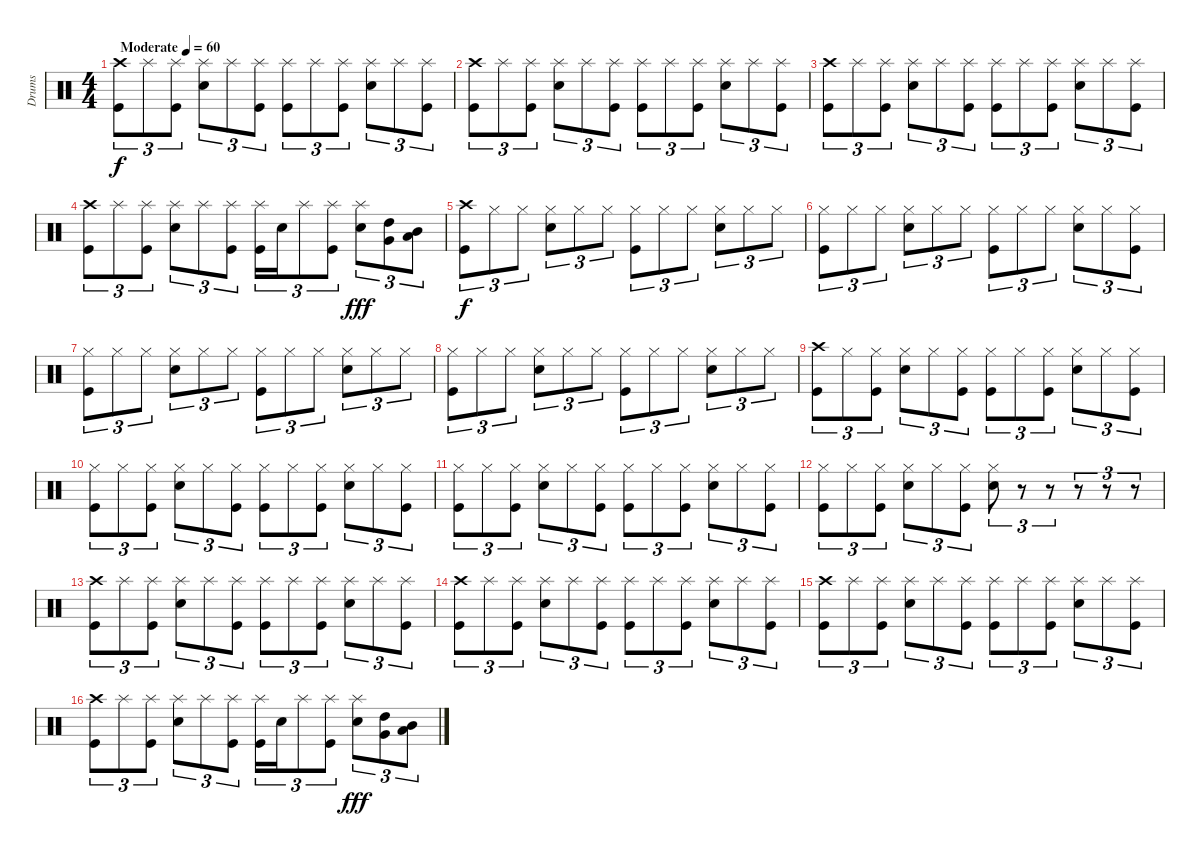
\track ("Drums" "Drums") {instrument percussion}
\staff {score}
\articulation defaults
\ts (4 4)
\tempo (60 "Moderate")
\clef neutral
\ks c
("Crash high (hit)" "Kick (hit)").8{tu (3 2) dy f} "Splash (hit)".8{tu (3 2)} ("Splash (hit)" "Kick (hit)").8{tu (3 2)} ("Splash (hit)" "Electric Snare (hit)").8{tu (3 2)} "Splash (hit)".8{tu (3 2)} ("Splash (hit)" "Kick (hit)").8{tu (3 2)} ("Splash (hit)" "Kick (hit)").8{tu (3 2)} "Splash (hit)".8{tu (3 2)} ("Splash (hit)" "Kick (hit)").8{tu (3 2)} ("Splash (hit)" "Electric Snare (hit)").8{tu (3 2)} "Splash (hit)".8{tu (3 2)} ("Splash (hit)" "Kick (hit)").8{tu (3 2)} |
("Crash high (hit)" "Kick (hit)").8{tu (3 2)} "Splash (hit)".8{tu (3 2)} ("Splash (hit)" "Kick (hit)").8{tu (3 2)} ("Splash (hit)" "Electric Snare (hit)").8{tu (3 2)} "Splash (hit)".8{tu (3 2)} ("Splash (hit)" "Kick (hit)").8{tu (3 2)} ("Splash (hit)" "Kick (hit)").8{tu (3 2)} "Splash (hit)".8{tu (3 2)} ("Splash (hit)" "Kick (hit)").8{tu (3 2)} ("Splash (hit)" "Electric Snare (hit)").8{tu (3 2)} "Splash (hit)".8{tu (3 2)} ("Splash (hit)" "Kick (hit)").8{tu (3 2)} |
("Crash high (hit)" "Kick (hit)").8{tu (3 2)} "Splash (hit)".8{tu (3 2)} ("Splash (hit)" "Kick (hit)").8{tu (3 2)} ("Splash (hit)" "Electric Snare (hit)").8{tu (3 2)} "Splash (hit)".8{tu (3 2)} ("Splash (hit)" "Kick (hit)").8{tu (3 2)} ("Splash (hit)" "Kick (hit)").8{tu (3 2)} "Splash (hit)".8{tu (3 2)} ("Splash (hit)" "Kick (hit)").8{tu (3 2)} ("Splash (hit)" "Electric Snare (hit)").8{tu (3 2)} "Splash (hit)".8{tu (3 2)} ("Splash (hit)" "Kick (hit)").8{tu (3 2)} |
("Crash high (hit)" "Kick (hit)").8{tu (3 2)} "Splash (hit)".8{tu (3 2)} ("Splash (hit)" "Kick (hit)").8{tu (3 2)} ("Splash (hit)" "Electric Snare (hit)").8{tu (3 2)} "Splash (hit)".8{tu (3 2)} ("Splash (hit)" "Kick (hit)").8{tu (3 2)} ("Splash (hit)" "Kick (hit)").16{tu (3 2)} "Electric Snare (hit)".16{tu (3 2)} "Splash (hit)".8{tu (3 2)} ("Splash (hit)" "Kick (hit)").8{tu (3 2)} ("Splash (hit)" "Electric Snare (hit)").8{tu (3 2) dy fff} ("High Tom (hit)" "Very Low Tom (hit)").8{tu (3 2)} ("Mid Tom (hit)" "Low Floor Tom (hit)").8{tu (3 2)} |
("Crash high (hit)" "Kick (hit)").8{tu (3 2) dy f} "Hi-Hat (closed)".8{tu (3 2)} "Hi-Hat (closed)".8{tu (3 2)} ("Hi-Hat (closed)" "Electric Snare (hit)").8{tu (3 2)} "Hi-Hat (closed)".8{tu (3 2)} "Hi-Hat (closed)".8{tu (3 2)} ("Hi-Hat (closed)" "Kick (hit)").8{tu (3 2)} "Hi-Hat (closed)".8{tu (3 2)} "Hi-Hat (closed)".8{tu (3 2)} ("Hi-Hat (closed)" "Electric Snare (hit)").8{tu (3 2)} "Hi-Hat (closed)".8{tu (3 2)} "Hi-Hat (closed)".8{tu (3 2)} |
("Hi-Hat (closed)" "Kick (hit)").8{tu (3 2)} "Hi-Hat (closed)".8{tu (3 2)} "Hi-Hat (closed)".8{tu (3 2)} ("Hi-Hat (closed)" "Electric Snare (hit)").8{tu (3 2)} "Hi-Hat (closed)".8{tu (3 2)} "Hi-Hat (closed)".8{tu (3 2)} ("Hi-Hat (closed)" "Kick (hit)").8{tu (3 2)} "Hi-Hat (closed)".8{tu (3 2)} "Hi-Hat (closed)".8{tu (3 2)} ("Hi-Hat (closed)" "Electric Snare (hit)").8{tu (3 2)} "Hi-Hat (closed)".8{tu (3 2)} ("Hi-Hat (closed)" "Kick (hit)").8{tu (3 2)} |
("Hi-Hat (closed)" "Kick (hit)").8{tu (3 2)} "Hi-Hat (closed)".8{tu (3 2)} "Hi-Hat (closed)".8{tu (3 2)} ("Hi-Hat (closed)" "Electric Snare (hit)").8{tu (3 2)} "Hi-Hat (closed)".8{tu (3 2)} "Hi-Hat (closed)".8{tu (3 2)} ("Hi-Hat (closed)" "Kick (hit)").8{tu (3 2)} "Hi-Hat (closed)".8{tu (3 2)} "Hi-Hat (closed)".8{tu (3 2)} ("Hi-Hat (closed)" "Electric Snare (hit)").8{tu (3 2)} "Hi-Hat (closed)".8{tu (3 2)} "Hi-Hat (closed)".8{tu (3 2)} |
("Hi-Hat (closed)" "Kick (hit)").8{tu (3 2)} "Hi-Hat (closed)".8{tu (3 2)} "Hi-Hat (closed)".8{tu (3 2)} ("Hi-Hat (closed)" "Electric Snare (hit)").8{tu (3 2)} "Hi-Hat (closed)".8{tu (3 2)} "Hi-Hat (closed)".8{tu (3 2)} ("Hi-Hat (closed)" "Kick (hit)").8{tu (3 2)} "Hi-Hat (closed)".8{tu (3 2)} "Hi-Hat (closed)".8{tu (3 2)} ("Hi-Hat (closed)" "Electric Snare (hit)").8{tu (3 2)} "Hi-Hat (closed)".8{tu (3 2)} "Hi-Hat (closed)".8{tu (3 2)} |
("Crash high (hit)" "Kick (hit)").8{tu (3 2)} "Hi-Hat (closed)".8{tu (3 2)} ("Hi-Hat (closed)" "Kick (hit)").8{tu (3 2)} ("Hi-Hat (closed)" "Electric Snare (hit)").8{tu (3 2)} "Hi-Hat (closed)".8{tu (3 2)} ("Hi-Hat (closed)" "Kick (hit)").8{tu (3 2)} ("Hi-Hat (closed)" "Kick (hit)").8{tu (3 2)} "Hi-Hat (closed)".8{tu (3 2)} ("Hi-Hat (closed)" "Kick (hit)").8{tu (3 2)} ("Hi-Hat (closed)" "Electric Snare (hit)").8{tu (3 2)} "Hi-Hat (closed)".8{tu (3 2)} ("Hi-Hat (closed)" "Kick (hit)").8{tu (3 2)} |
("Hi-Hat (closed)" "Kick (hit)").8{tu (3 2)} "Hi-Hat (closed)".8{tu (3 2)} ("Hi-Hat (closed)" "Kick (hit)").8{tu (3 2)} ("Hi-Hat (closed)" "Electric Snare (hit)").8{tu (3 2)} "Hi-Hat (closed)".8{tu (3 2)} ("Hi-Hat (closed)" "Kick (hit)").8{tu (3 2)} ("Hi-Hat (closed)" "Kick (hit)").8{tu (3 2)} "Hi-Hat (closed)".8{tu (3 2)} ("Hi-Hat (closed)" "Kick (hit)").8{tu (3 2)} ("Hi-Hat (closed)" "Electric Snare (hit)").8{tu (3 2)} "Hi-Hat (closed)".8{tu (3 2)} ("Hi-Hat (closed)" "Kick (hit)").8{tu (3 2)} |
("Hi-Hat (closed)" "Kick (hit)").8{tu (3 2)} "Hi-Hat (closed)".8{tu (3 2)} ("Hi-Hat (closed)" "Kick (hit)").8{tu (3 2)} ("Hi-Hat (closed)" "Electric Snare (hit)").8{tu (3 2)} "Hi-Hat (closed)".8{tu (3 2)} ("Hi-Hat (closed)" "Kick (hit)").8{tu (3 2)} ("Hi-Hat (closed)" "Kick (hit)").8{tu (3 2)} "Hi-Hat (closed)".8{tu (3 2)} ("Hi-Hat (closed)" "Kick (hit)").8{tu (3 2)} ("Hi-Hat (closed)" "Electric Snare (hit)").8{tu (3 2)} "Hi-Hat (closed)".8{tu (3 2)} ("Hi-Hat (closed)" "Kick (hit)").8{tu (3 2)} |
("Hi-Hat (closed)" "Kick (hit)").8{tu (3 2)} "Hi-Hat (closed)".8{tu (3 2)} ("Hi-Hat (closed)" "Kick (hit)").8{tu (3 2)} ("Hi-Hat (closed)" "Electric Snare (hit)").8{tu (3 2)} "Hi-Hat (closed)".8{tu (3 2)} ("Hi-Hat (closed)" "Kick (hit)").8{tu (3 2)} ("Hi-Hat (closed)" "Electric Snare (hit)").8{tu (3 2)} r.8{tu (3 2)} r.8{tu (3 2)} r.8{tu (3 2)} r.8{tu (3 2)} r.8{tu (3 2)} |
("Crash high (hit)" "Kick (hit)").8{tu (3 2)} "Splash (hit)".8{tu (3 2)} ("Splash (hit)" "Kick (hit)").8{tu (3 2)} ("Splash (hit)" "Electric Snare (hit)").8{tu (3 2)} "Splash (hit)".8{tu (3 2)} ("Splash (hit)" "Kick (hit)").8{tu (3 2)} ("Splash (hit)" "Kick (hit)").8{tu (3 2)} "Splash (hit)".8{tu (3 2)} ("Splash (hit)" "Kick (hit)").8{tu (3 2)} ("Splash (hit)" "Electric Snare (hit)").8{tu (3 2)} "Splash (hit)".8{tu (3 2)} ("Splash (hit)" "Kick (hit)").8{tu (3 2)} |
("Crash high (hit)" "Kick (hit)").8{tu (3 2)} "Splash (hit)".8{tu (3 2)} ("Splash (hit)" "Kick (hit)").8{tu (3 2)} ("Splash (hit)" "Electric Snare (hit)").8{tu (3 2)} "Splash (hit)".8{tu (3 2)} ("Splash (hit)" "Kick (hit)").8{tu (3 2)} ("Splash (hit)" "Kick (hit)").8{tu (3 2)} "Splash (hit)".8{tu (3 2)} ("Splash (hit)" "Kick (hit)").8{tu (3 2)} ("Splash (hit)" "Electric Snare (hit)").8{tu (3 2)} "Splash (hit)".8{tu (3 2)} ("Splash (hit)" "Kick (hit)").8{tu (3 2)} |
("Crash high (hit)" "Kick (hit)").8{tu (3 2)} "Splash (hit)".8{tu (3 2)} ("Splash (hit)" "Kick (hit)").8{tu (3 2)} ("Splash (hit)" "Electric Snare (hit)").8{tu (3 2)} "Splash (hit)".8{tu (3 2)} ("Splash (hit)" "Kick (hit)").8{tu (3 2)} ("Splash (hit)" "Kick (hit)").8{tu (3 2)} "Splash (hit)".8{tu (3 2)} ("Splash (hit)" "Kick (hit)").8{tu (3 2)} ("Splash (hit)" "Electric Snare (hit)").8{tu (3 2)} "Splash (hit)".8{tu (3 2)} ("Splash (hit)" "Kick (hit)").8{tu (3 2)} |
("Crash high (hit)" "Kick (hit)").8{tu (3 2)} "Splash (hit)".8{tu (3 2)} ("Splash (hit)" "Kick (hit)").8{tu (3 2)} ("Splash (hit)" "Electric Snare (hit)").8{tu (3 2)} "Splash (hit)".8{tu (3 2)} ("Splash (hit)" "Kick (hit)").8{tu (3 2)} ("Splash (hit)" "Kick (hit)").16{tu (3 2)} "Electric Snare (hit)".16{tu (3 2)} "Splash (hit)".8{tu (3 2)} ("Splash (hit)" "Kick (hit)").8{tu (3 2)} ("Splash (hit)" "Electric Snare (hit)").8{tu (3 2) dy fff} ("High Tom (hit)" "Very Low Tom (hit)").8{tu (3 2)} ("Mid Tom (hit)" "Low Floor Tom (hit)").8{tu (3 2)}
